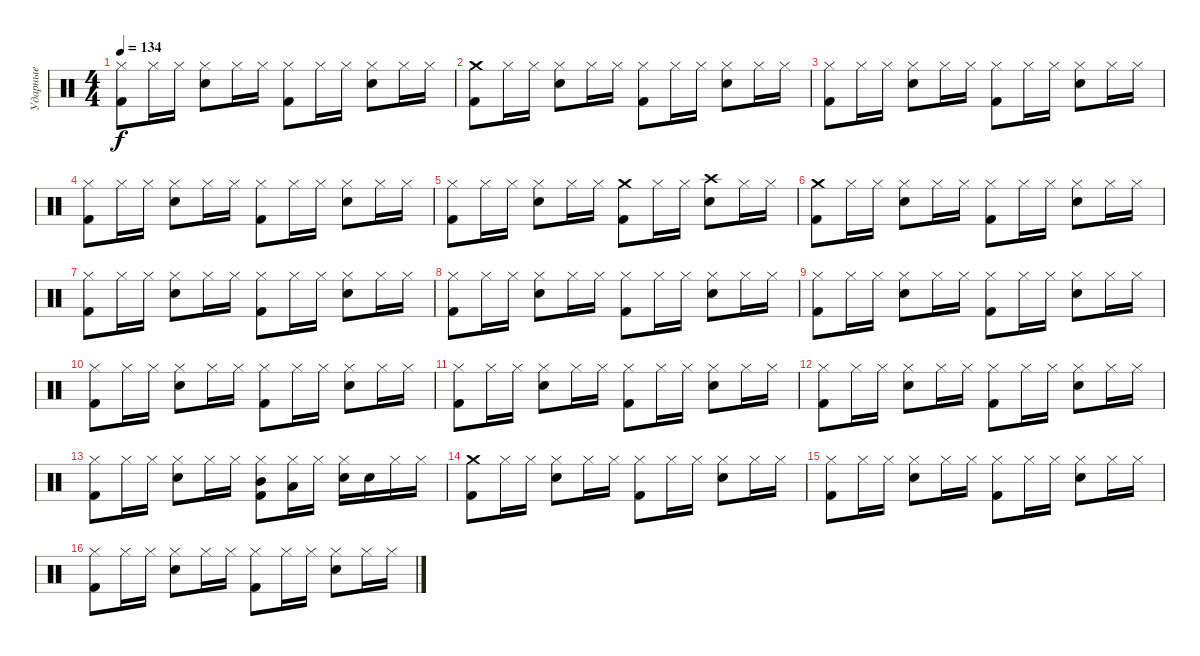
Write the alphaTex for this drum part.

\track ("Ударные" "Ударные") {instrument percussion}
\staff {score}
\articulation defaults
\ts (4 4)
\tempo 134
\clef neutral
\ks c
("Hi-Hat (closed)" "Kick (hit) 2").8{dy f} "Hi-Hat (closed)".16 "Hi-Hat (closed)".16 ("Hi-Hat (closed)" "Snare (hit) 2").8 "Hi-Hat (closed)".16 "Hi-Hat (closed)".16 ("Hi-Hat (closed)" "Kick (hit) 2").8 "Hi-Hat (closed)".16 "Hi-Hat (closed)".16 ("Hi-Hat (closed)" "Snare (hit) 2").8 "Hi-Hat (closed)".16 "Hi-Hat (closed)".16 |
("Crash medium (hit)" "Kick (hit) 2").8 "Hi-Hat (closed)".16 "Hi-Hat (closed)".16 ("Hi-Hat (closed)" "Snare (hit) 2").8 "Hi-Hat (closed)".16 "Hi-Hat (closed)".16 ("Hi-Hat (closed)" "Kick (hit) 2").8 "Hi-Hat (closed)".16 "Hi-Hat (closed)".16 ("Hi-Hat (closed)" "Snare (hit) 2").8 "Hi-Hat (closed)".16 "Hi-Hat (closed)".16 |
("Hi-Hat (closed)" "Kick (hit) 2").8 "Hi-Hat (closed)".16 "Hi-Hat (closed)".16 ("Hi-Hat (closed)" "Snare (hit) 2").8 "Hi-Hat (closed)".16 "Hi-Hat (closed)".16 ("Hi-Hat (closed)" "Kick (hit) 2").8 "Hi-Hat (closed)".16 "Hi-Hat (closed)".16 ("Hi-Hat (closed)" "Snare (hit) 2").8 "Hi-Hat (closed)".16 "Hi-Hat (closed)".16 |
("Hi-Hat (closed)" "Kick (hit) 2").8 "Hi-Hat (closed)".16 "Hi-Hat (closed)".16 ("Hi-Hat (closed)" "Snare (hit) 2").8 "Hi-Hat (closed)".16 "Hi-Hat (closed)".16 ("Hi-Hat (closed)" "Kick (hit) 2").8 "Hi-Hat (closed)".16 "Hi-Hat (closed)".16 ("Hi-Hat (closed)" "Snare (hit) 2").8 "Hi-Hat (closed)".16 "Hi-Hat (closed)".16 |
("Hi-Hat (closed)" "Kick (hit) 2").8 "Hi-Hat (closed)".16 "Hi-Hat (closed)".16 ("Hi-Hat (closed)" "Snare (hit) 2").8 "Hi-Hat (closed)".16 "Hi-Hat (closed)".16 ("Crash medium (hit)" "Kick (hit) 2").8 "Hi-Hat (closed)".16 "Hi-Hat (closed)".16 ("Crash high (hit)" "Snare (hit) 2").8 "Hi-Hat (closed)".16 "Hi-Hat (closed)".16 |
("Crash medium (hit)" "Kick (hit) 2").8 "Hi-Hat (closed)".16 "Hi-Hat (closed)".16 ("Hi-Hat (closed)" "Snare (hit) 2").8 "Hi-Hat (closed)".16 "Hi-Hat (closed)".16 ("Hi-Hat (closed)" "Kick (hit) 2").8 "Hi-Hat (closed)".16 "Hi-Hat (closed)".16 ("Hi-Hat (closed)" "Snare (hit) 2").8 "Hi-Hat (closed)".16 "Hi-Hat (closed)".16 |
("Hi-Hat (closed)" "Kick (hit) 2").8 "Hi-Hat (closed)".16 "Hi-Hat (closed)".16 ("Hi-Hat (closed)" "Snare (hit) 2").8 "Hi-Hat (closed)".16 "Hi-Hat (closed)".16 ("Hi-Hat (closed)" "Kick (hit) 2").8 "Hi-Hat (closed)".16 "Hi-Hat (closed)".16 ("Hi-Hat (closed)" "Snare (hit) 2").8 "Hi-Hat (closed)".16 "Hi-Hat (closed)".16 |
("Hi-Hat (closed)" "Kick (hit) 2").8 "Hi-Hat (closed)".16 "Hi-Hat (closed)".16 ("Hi-Hat (closed)" "Snare (hit) 2").8 "Hi-Hat (closed)".16 "Hi-Hat (closed)".16 ("Hi-Hat (closed)" "Kick (hit) 2").8 "Hi-Hat (closed)".16 "Hi-Hat (closed)".16 ("Hi-Hat (closed)" "Snare (hit) 2").8 "Hi-Hat (closed)".16 "Hi-Hat (closed)".16 |
("Hi-Hat (closed)" "Kick (hit) 2").8 "Hi-Hat (closed)".16 "Hi-Hat (closed)".16 ("Hi-Hat (closed)" "Snare (hit) 2").8 "Hi-Hat (closed)".16 "Hi-Hat (closed)".16 ("Hi-Hat (closed)" "Kick (hit) 2").8 "Hi-Hat (closed)".16 "Hi-Hat (closed)".16 ("Hi-Hat (closed)" "Snare (hit) 2").8 "Hi-Hat (closed)".16 "Hi-Hat (closed)".16 |
("Hi-Hat (closed)" "Kick (hit) 2").8 "Hi-Hat (closed)".16 "Hi-Hat (closed)".16 ("Hi-Hat (closed)" "Snare (hit) 2").8 "Hi-Hat (closed)".16 "Hi-Hat (closed)".16 ("Hi-Hat (closed)" "Kick (hit) 2").8 "Hi-Hat (closed)".16 "Hi-Hat (closed)".16 ("Hi-Hat (closed)" "Snare (hit) 2").8 "Hi-Hat (closed)".16 "Hi-Hat (closed)".16 |
("Hi-Hat (closed)" "Kick (hit) 2").8 "Hi-Hat (closed)".16 "Hi-Hat (closed)".16 ("Hi-Hat (closed)" "Snare (hit) 2").8 "Hi-Hat (closed)".16 "Hi-Hat (closed)".16 ("Hi-Hat (closed)" "Kick (hit) 2").8 "Hi-Hat (closed)".16 "Hi-Hat (closed)".16 ("Hi-Hat (closed)" "Snare (hit) 2").8 "Hi-Hat (closed)".16 "Hi-Hat (closed)".16 |
("Hi-Hat (closed)" "Kick (hit) 2").8 "Hi-Hat (closed)".16 "Hi-Hat (closed)".16 ("Hi-Hat (closed)" "Snare (hit) 2").8 "Hi-Hat (closed)".16 "Hi-Hat (closed)".16 ("Hi-Hat (closed)" "Kick (hit) 2").8 "Hi-Hat (closed)".16 "Hi-Hat (closed)".16 ("Hi-Hat (closed)" "Snare (hit) 2").8 "Hi-Hat (closed)".16 "Hi-Hat (closed)".16 |
("Hi-Hat (closed)" "Kick (hit) 2").8 "Hi-Hat (closed)".16 "Hi-Hat (closed)".16 ("Hi-Hat (closed)" "Snare (hit) 2").8 "Hi-Hat (closed)".16 "Hi-Hat (closed)".16 ("Hi-Hat (closed)" "Mid Tom (hit)" "Kick (hit) 2").8 ("Hi-Hat (closed)" "Low Tom (hit)").16 "Hi-Hat (closed)".16 ("Hi-Hat (closed)" "Snare (hit) 2").16 "Snare (hit) 2".16 "Hi-Hat (closed)".16 "Hi-Hat (closed)".16 |
("Crash medium (hit)" "Kick (hit) 2").8 "Hi-Hat (closed)".16 "Hi-Hat (closed)".16 ("Hi-Hat (closed)" "Snare (hit) 2").8 "Hi-Hat (closed)".16 "Hi-Hat (closed)".16 ("Hi-Hat (closed)" "Kick (hit) 2").8 "Hi-Hat (closed)".16 "Hi-Hat (closed)".16 ("Hi-Hat (closed)" "Snare (hit) 2").8 "Hi-Hat (closed)".16 "Hi-Hat (closed)".16 |
("Hi-Hat (closed)" "Kick (hit) 2").8 "Hi-Hat (closed)".16 "Hi-Hat (closed)".16 ("Hi-Hat (closed)" "Snare (hit) 2").8 "Hi-Hat (closed)".16 "Hi-Hat (closed)".16 ("Hi-Hat (closed)" "Kick (hit) 2").8 "Hi-Hat (closed)".16 "Hi-Hat (closed)".16 ("Hi-Hat (closed)" "Snare (hit) 2").8 "Hi-Hat (closed)".16 "Hi-Hat (closed)".16 |
("Hi-Hat (closed)" "Kick (hit) 2").8 "Hi-Hat (closed)".16 "Hi-Hat (closed)".16 ("Hi-Hat (closed)" "Snare (hit) 2").8 "Hi-Hat (closed)".16 "Hi-Hat (closed)".16 ("Hi-Hat (closed)" "Kick (hit) 2").8 "Hi-Hat (closed)".16 "Hi-Hat (closed)".16 ("Hi-Hat (closed)" "Snare (hit) 2").8 "Hi-Hat (closed)".16 "Hi-Hat (closed)".16
